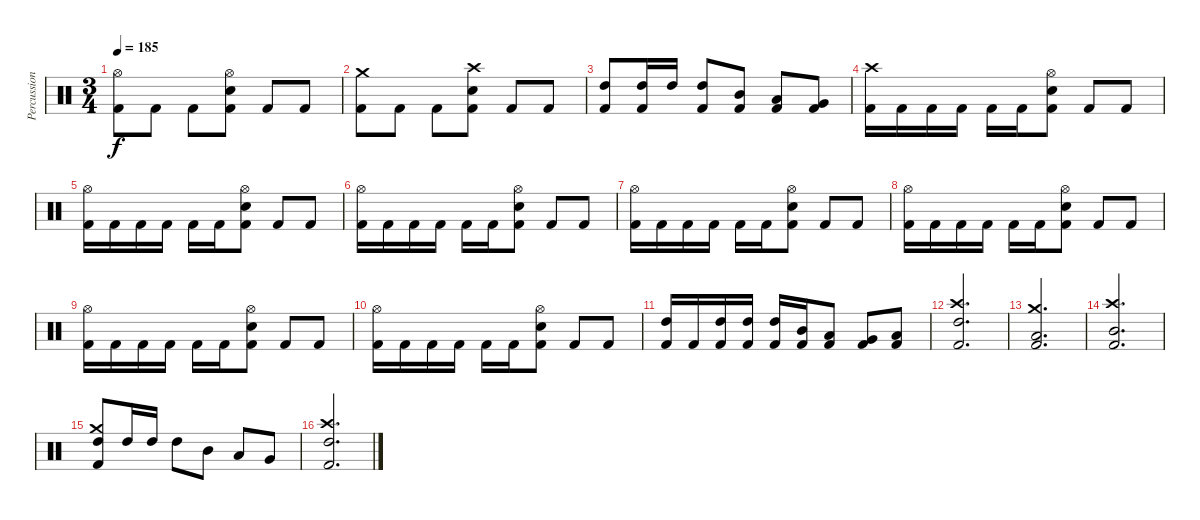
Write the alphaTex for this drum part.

\track ("Percussion" "Percussion") {instrument percussion}
\staff {score}
\articulation defaults
\ts (3 4)
\tempo 185
\clef neutral
\ks c
("Hi-Hat (open)" "Kick (hit) 2").8{dy f} "Kick (hit) 2".8 "Kick (hit) 2".8 ("Hi-Hat (open)" "Snare (hit) 2" "Kick (hit) 2").8 "Kick (hit) 2".8 "Kick (hit) 2".8 |
("Crash medium (hit)" "Kick (hit) 2").8 "Kick (hit) 2".8 "Kick (hit) 2".8 ("Crash high (hit)" "Snare (hit) 2" "Kick (hit) 2").8 "Kick (hit) 2".8 "Kick (hit) 2".8 |
("High Tom (hit)" "Kick (hit) 2").8 ("High Tom (hit)" "Kick (hit) 2").16 "High Tom (hit)".16 ("High Tom (hit)" "Kick (hit) 2").8 ("Mid Tom (hit)" "Kick (hit) 2").8 ("Low Tom (hit)" "Kick (hit) 2").8 ("Very Low Tom (hit)" "Kick (hit) 2").8 |
("Crash high (hit)" "Kick (hit) 2").16 "Kick (hit) 2".16 "Kick (hit) 2".16 "Kick (hit) 2".16 "Kick (hit) 2".16 "Kick (hit) 2".16 ("Hi-Hat (open)" "Snare (hit) 2" "Kick (hit) 2").8 "Kick (hit) 2".8 "Kick (hit) 2".8 |
("Hi-Hat (open)" "Kick (hit) 2").16 "Kick (hit) 2".16 "Kick (hit) 2".16 "Kick (hit) 2".16 "Kick (hit) 2".16 "Kick (hit) 2".16 ("Hi-Hat (open)" "Snare (hit) 2" "Kick (hit) 2").8 "Kick (hit) 2".8 "Kick (hit) 2".8 |
("Hi-Hat (open)" "Kick (hit) 2").16 "Kick (hit) 2".16 "Kick (hit) 2".16 "Kick (hit) 2".16 "Kick (hit) 2".16 "Kick (hit) 2".16 ("Hi-Hat (open)" "Snare (hit) 2" "Kick (hit) 2").8 "Kick (hit) 2".8 "Kick (hit) 2".8 |
("Hi-Hat (open)" "Kick (hit) 2").16 "Kick (hit) 2".16 "Kick (hit) 2".16 "Kick (hit) 2".16 "Kick (hit) 2".16 "Kick (hit) 2".16 ("Hi-Hat (open)" "Snare (hit) 2" "Kick (hit) 2").8 "Kick (hit) 2".8 "Kick (hit) 2".8 |
("Hi-Hat (open)" "Kick (hit) 2").16 "Kick (hit) 2".16 "Kick (hit) 2".16 "Kick (hit) 2".16 "Kick (hit) 2".16 "Kick (hit) 2".16 ("Hi-Hat (open)" "Snare (hit) 2" "Kick (hit) 2").8 "Kick (hit) 2".8 "Kick (hit) 2".8 |
("Hi-Hat (open)" "Kick (hit) 2").16 "Kick (hit) 2".16 "Kick (hit) 2".16 "Kick (hit) 2".16 "Kick (hit) 2".16 "Kick (hit) 2".16 ("Hi-Hat (open)" "Snare (hit) 2" "Kick (hit) 2").8 "Kick (hit) 2".8 "Kick (hit) 2".8 |
("Hi-Hat (open)" "Kick (hit) 2").16 "Kick (hit) 2".16 "Kick (hit) 2".16 "Kick (hit) 2".16 "Kick (hit) 2".16 "Kick (hit) 2".16 ("Hi-Hat (open)" "Snare (hit) 2" "Kick (hit) 2").8 "Kick (hit) 2".8 "Kick (hit) 2".8 |
("High Tom (hit)" "Kick (hit) 2").16 "Kick (hit) 2".16 ("High Tom (hit)" "Kick (hit) 2").16 ("High Tom (hit)" "Kick (hit) 2").16 ("High Tom (hit)" "Kick (hit) 2").16 ("Mid Tom (hit)" "Kick (hit) 2").16 ("Low Tom (hit)" "Kick (hit) 2").8 ("Very Low Tom (hit)" "Kick (hit) 2").8 ("Low Floor Tom (hit)" "Kick (hit) 2").8 |
("Crash high (hit)" "High Tom (hit)" "Kick (hit) 2").2{d} |
("Crash medium (hit)" "Low Tom (hit)" "Kick (hit) 2").2{d} |
("Crash high (hit)" "Mid Tom (hit)" "Kick (hit) 2").2{d} |
("Crash medium (hit)" "High Tom (hit)" "Kick (hit) 2").8 "High Tom (hit)".16 "High Tom (hit)".16 "High Tom (hit)".8 "Mid Tom (hit)".8 "Low Tom (hit)".8 "Very Low Tom (hit)".8 |
("Crash high (hit)" "High Tom (hit)" "Kick (hit) 2").2{d}
